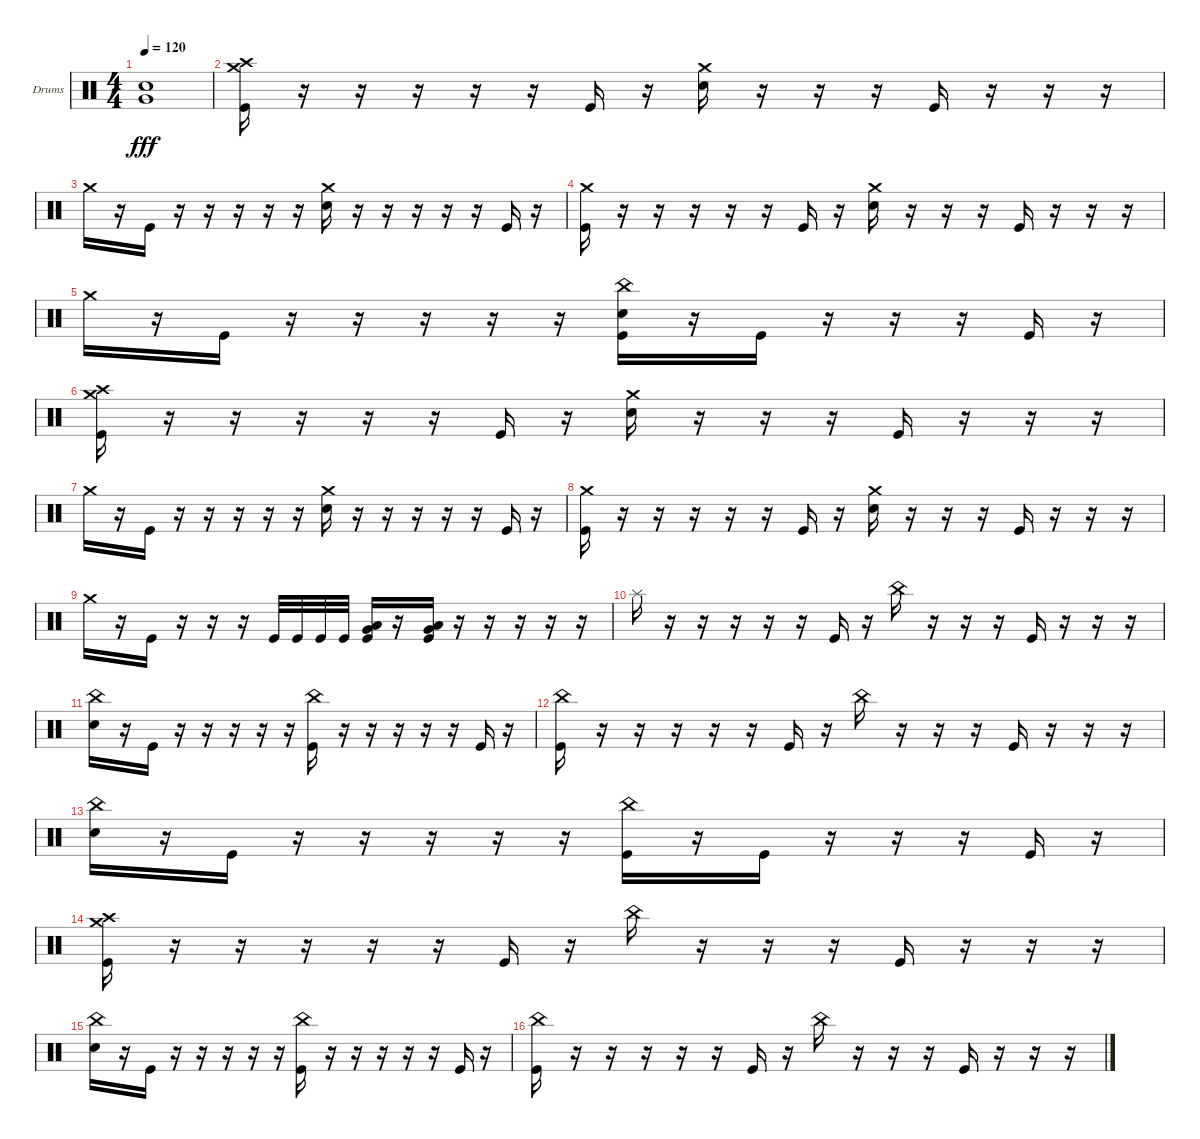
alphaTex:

\bracketExtendMode groupsimilarinstruments
\firstSystemTrackNameOrientation horizontal
\otherSystemsTrackNameOrientation horizontal
\track ("Drumkit" "Drums") {instrument percussion}
\staff {score}
\articulation defaults
\ts (4 4)
\tempo 120
\clef neutral
\ks c
("Snare (hit) 2" "Very Low Tom (hit)").1{dy fff} |
("Crash high (hit)" "Crash medium (hit)" "Kick (hit)").16 r.16 r.16 r.16 r.16 r.16 "Kick (hit)".16 r.16 ("Crash medium (hit)" "Snare (hit) 2").16 r.16 r.16 r.16 "Kick (hit)".16 r.16 r.16 r.16 |
"Crash medium (hit)".16 r.16 "Kick (hit)".16 r.16 r.16 r.16 r.16 r.16 ("Crash medium (hit)" "Snare (hit) 2").16 r.16 r.16 r.16 r.16 r.16 "Kick (hit)".16 r.16 |
("Kick (hit)" "Crash medium (hit)").16 r.16 r.16 r.16 r.16 r.16 "Kick (hit)".16 r.16 ("Crash medium (hit)" "Snare (hit) 2").16 r.16 r.16 r.16 "Kick (hit)".16 r.16 r.16 r.16 |
"Crash medium (hit)".16 r.16 "Kick (hit)".16 r.16 r.16 r.16 r.16 r.16 ("Snare (hit) 2" "China (hit)" "Kick (hit)").16 r.16 "Kick (hit)".16 r.16 r.16 r.16 "Kick (hit)".16 r.16 |
("Crash high (hit)" "Crash medium (hit)" "Kick (hit)").16 r.16 r.16 r.16 r.16 r.16 "Kick (hit)".16 r.16 ("Crash medium (hit)" "Snare (hit) 2").16 r.16 r.16 r.16 "Kick (hit)".16 r.16 r.16 r.16 |
"Crash medium (hit)".16 r.16 "Kick (hit)".16 r.16 r.16 r.16 r.16 r.16 ("Crash medium (hit)" "Snare (hit) 2").16 r.16 r.16 r.16 r.16 r.16 "Kick (hit)".16 r.16 |
("Kick (hit)" "Crash medium (hit)").16 r.16 r.16 r.16 r.16 r.16 "Kick (hit)".16 r.16 ("Crash medium (hit)" "Snare (hit) 2").16 r.16 r.16 r.16 "Kick (hit)".16 r.16 r.16 r.16 |
"Crash medium (hit)".16 r.16 "Kick (hit)".16 r.16 r.16 r.16 "Kick (hit)".32 "Kick (hit)".32 "Kick (hit)".32 "Kick (hit)".32 ("Kick (hit)" "Very Low Tom (hit)" "Low Tom (hit)").16 r.16 ("Kick (hit)" "Low Tom (hit)" "Very Low Tom (hit)").16 r.16 r.16 r.16 r.16 r.16 |
"Splash (hit)".16 r.16 r.16 r.16 r.16 r.16 "Kick (hit)".16 r.16 "China (hit)".16 r.16 r.16 r.16 "Kick (hit)".16 r.16 r.16 r.16 |
("China (hit)" "Snare (hit) 2").16 r.16 "Kick (hit)".16 r.16 r.16 r.16 r.16 r.16 ("China (hit)" "Kick (hit)").16 r.16 r.16 r.16 r.16 r.16 "Kick (hit)".16 r.16 |
("Kick (hit)" "China (hit)").16 r.16 r.16 r.16 r.16 r.16 "Kick (hit)".16 r.16 "China (hit)".16 r.16 r.16 r.16 "Kick (hit)".16 r.16 r.16 r.16 |
("Snare (hit) 2" "China (hit)").16 r.16 "Kick (hit)".16 r.16 r.16 r.16 r.16 r.16 ("China (hit)" "Kick (hit)").16 r.16 "Kick (hit)".16 r.16 r.16 r.16 "Kick (hit)".16 r.16 |
("Crash high (hit)" "Crash medium (hit)" "Kick (hit)").16 r.16 r.16 r.16 r.16 r.16 "Kick (hit)".16 r.16 "China (hit)".16 r.16 r.16 r.16 "Kick (hit)".16 r.16 r.16 r.16 |
("China (hit)" "Snare (hit) 2").16 r.16 "Kick (hit)".16 r.16 r.16 r.16 r.16 r.16 ("China (hit)" "Kick (hit)").16 r.16 r.16 r.16 r.16 r.16 "Kick (hit)".16 r.16 |
("Kick (hit)" "China (hit)").16 r.16 r.16 r.16 r.16 r.16 "Kick (hit)".16 r.16 "China (hit)".16 r.16 r.16 r.16 "Kick (hit)".16 r.16 r.16 r.16
